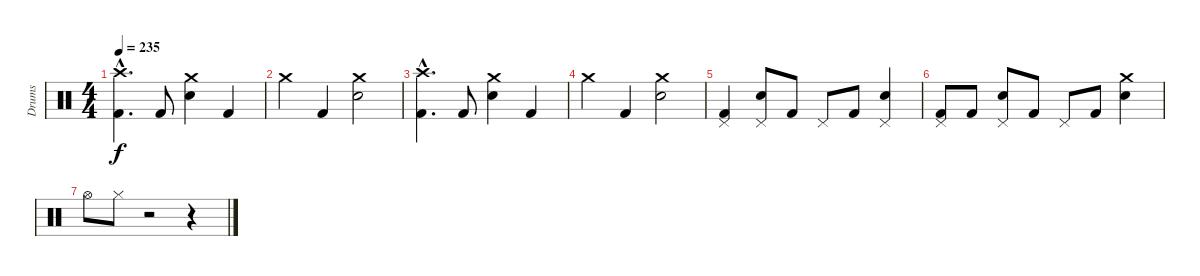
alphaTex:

\track ("Drums" "Drums") {instrument percussion}
\staff {score}
\articulation defaults
\ts (4 4)
\tempo 235
\clef neutral
\ks c
("Crash high (hit)"{hac} "Kick (hit) 2"{hac}).4{d dy f} "Kick (hit) 2".8 ("Crash medium (hit)" "Electric Snare (hit)").4 "Kick (hit) 2".4 |
"Crash medium (hit)".4 "Kick (hit) 2".4 ("Crash medium (hit)" "Electric Snare (hit)").2 |
("Crash high (hit)"{hac} "Kick (hit) 2"{hac}).4{d} "Kick (hit) 2".8 ("Crash medium (hit)" "Electric Snare (hit)").4 "Kick (hit) 2".4 |
"Crash medium (hit)".4 "Kick (hit) 2".4 ("Crash medium (hit)" "Electric Snare (hit)").2 |
("Pedal Hi-Hat (hit)" "Kick (hit) 2").4 ("Pedal Hi-Hat (hit)" "Electric Snare (hit)").8 "Kick (hit) 2".8 "Pedal Hi-Hat (hit)".8 "Kick (hit) 2".8 ("Pedal Hi-Hat (hit)" "Electric Snare (hit)").4 |
("Pedal Hi-Hat (hit)" "Kick (hit) 2").8 "Kick (hit) 2".8 ("Pedal Hi-Hat (hit)" "Electric Snare (hit)").8 "Kick (hit) 2".8 "Pedal Hi-Hat (hit)".8 "Kick (hit) 2".8 ("Crash medium (hit)" "Electric Snare (hit)").4 |
"Hi-Hat (open)".8 "Hi-Hat (closed)".8 r.2 r.4
